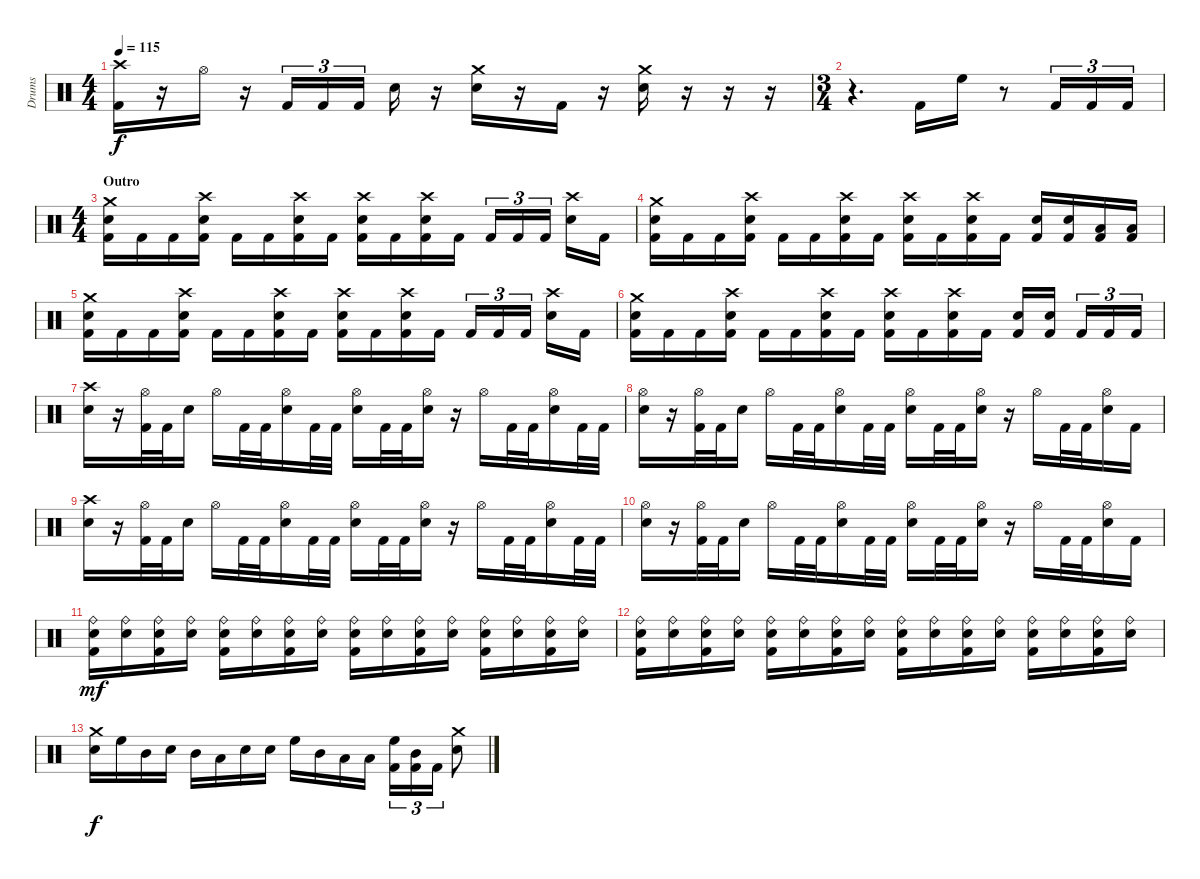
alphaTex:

\track ("Drums" "Drums") {instrument percussion}
\staff {score}
\articulation defaults
\ts (4 4)
\tempo 115
\clef neutral
\ks c
("Crash high (hit)" "Kick (hit) 2").16{dy f} r.16 "Hi-Hat (open)".16 r.16 "Kick (hit) 2".16{tu (3 2)} "Kick (hit) 2".16{tu (3 2)} "Kick (hit) 2".16{tu (3 2)} "Electric Snare (hit)".16 r.16 ("Crash medium (hit)" "Electric Snare (hit)").16 r.16 "Kick (hit) 2".16 r.16 ("Crash medium (hit)" "Electric Snare (hit)").16 r.16 r.16 r.16 |
\ts (3 4)
r.4{d} "Kick (hit) 2".16 "High Floor Tom (hit)".16 r.8 "Kick (hit) 2".16{tu (3 2)} "Kick (hit) 2".16{tu (3 2)} "Kick (hit) 2".16{tu (3 2)} |
\ts (4 4)
\section ("" "Outro")
("Crash medium (hit)" "Electric Snare (hit)" "Kick (hit) 2").16 "Kick (hit) 2".16 "Kick (hit) 2".16 ("Crash high (hit)" "Electric Snare (hit)" "Kick (hit) 2").16 "Kick (hit) 2".16 "Kick (hit) 2".16 ("Crash high (hit)" "Electric Snare (hit)" "Kick (hit) 2").16 "Kick (hit) 2".16 ("Crash high (hit)" "Electric Snare (hit)" "Kick (hit) 2").16 "Kick (hit) 2".16 ("Crash high (hit)" "Electric Snare (hit)" "Kick (hit) 2").16 "Kick (hit) 2".16 "Kick (hit) 2".16{tu (3 2)} "Kick (hit) 2".16{tu (3 2)} "Kick (hit) 2".16{tu (3 2)} ("Crash high (hit)" "Electric Snare (hit)").16 "Kick (hit) 2".16 |
("Crash medium (hit)" "Electric Snare (hit)" "Kick (hit) 2").16 "Kick (hit) 2".16 "Kick (hit) 2".16 ("Crash high (hit)" "Electric Snare (hit)" "Kick (hit) 2").16 "Kick (hit) 2".16 "Kick (hit) 2".16 ("Crash high (hit)" "Electric Snare (hit)" "Kick (hit) 2").16 "Kick (hit) 2".16 ("Crash high (hit)" "Electric Snare (hit)" "Kick (hit) 2").16 "Kick (hit) 2".16 ("Crash high (hit)" "Electric Snare (hit)" "Kick (hit) 2").16 "Kick (hit) 2".16 ("Electric Snare (hit)" "Kick (hit) 2").16 ("Electric Snare (hit)" "Kick (hit) 2").16 ("Low Tom (hit)" "Kick (hit) 2").16 ("Low Floor Tom (hit)" "Kick (hit) 2").16 |
("Crash medium (hit)" "Electric Snare (hit)" "Kick (hit) 2").16 "Kick (hit) 2".16 "Kick (hit) 2".16 ("Crash high (hit)" "Electric Snare (hit)" "Kick (hit) 2").16 "Kick (hit) 2".16 "Kick (hit) 2".16 ("Crash high (hit)" "Electric Snare (hit)" "Kick (hit) 2").16 "Kick (hit) 2".16 ("Crash high (hit)" "Electric Snare (hit)" "Kick (hit) 2").16 "Kick (hit) 2".16 ("Crash high (hit)" "Electric Snare (hit)" "Kick (hit) 2").16 "Kick (hit) 2".16 "Kick (hit) 2".16{tu (3 2)} "Kick (hit) 2".16{tu (3 2)} "Kick (hit) 2".16{tu (3 2)} ("Crash high (hit)" "Electric Snare (hit)").16 "Kick (hit) 2".16 |
("Crash medium (hit)" "Electric Snare (hit)" "Kick (hit) 2").16 "Kick (hit) 2".16 "Kick (hit) 2".16 ("Crash high (hit)" "Electric Snare (hit)" "Kick (hit) 2").16 "Kick (hit) 2".16 "Kick (hit) 2".16 ("Crash high (hit)" "Electric Snare (hit)" "Kick (hit) 2").16 "Kick (hit) 2".16 ("Crash high (hit)" "Electric Snare (hit)" "Kick (hit) 2").16 "Kick (hit) 2".16 ("Crash high (hit)" "Electric Snare (hit)" "Kick (hit) 2").16 "Kick (hit) 2".16 ("Electric Snare (hit)" "Kick (hit) 2").16 ("Electric Snare (hit)" "Kick (hit) 2").16 "Kick (hit) 2".16{tu (3 2)} "Kick (hit) 2".16{tu (3 2)} "Kick (hit) 2".16{tu (3 2)} |
("Crash high (hit)" "Electric Snare (hit)").16 r.16 ("Hi-Hat (open)" "Kick (hit) 2").32 "Kick (hit) 2".32 "Electric Snare (hit)".16 "Hi-Hat (open)".16 "Kick (hit) 2".32 "Kick (hit) 2".32 ("Hi-Hat (open)" "Electric Snare (hit)").16 "Kick (hit) 2".32 "Kick (hit) 2".32 ("Hi-Hat (open)" "Electric Snare (hit)").16 "Kick (hit) 2".32 "Kick (hit) 2".32 ("Hi-Hat (open)" "Electric Snare (hit)").16 r.16 "Hi-Hat (open)".16 "Kick (hit) 2".32 "Kick (hit) 2".32 ("Hi-Hat (open)" "Electric Snare (hit)").16 "Kick (hit) 2".32 "Kick (hit) 2".32 |
("Hi-Hat (open)" "Electric Snare (hit)").16 r.16 ("Hi-Hat (open)" "Kick (hit) 2").32 "Kick (hit) 2".32 "Electric Snare (hit)".16 "Hi-Hat (open)".16 "Kick (hit) 2".32 "Kick (hit) 2".32 ("Hi-Hat (open)" "Electric Snare (hit)").16 "Kick (hit) 2".32 "Kick (hit) 2".32 ("Hi-Hat (open)" "Electric Snare (hit)").16 "Kick (hit) 2".32 "Kick (hit) 2".32 ("Hi-Hat (open)" "Electric Snare (hit)").16 r.16 "Hi-Hat (open)".16 "Kick (hit) 2".32 "Kick (hit) 2".32 ("Hi-Hat (open)" "Electric Snare (hit)").16 "Kick (hit) 2".16 |
("Crash high (hit)" "Electric Snare (hit)").16 r.16 ("Hi-Hat (open)" "Kick (hit) 2").32 "Kick (hit) 2".32 "Electric Snare (hit)".16 "Hi-Hat (open)".16 "Kick (hit) 2".32 "Kick (hit) 2".32 ("Hi-Hat (open)" "Electric Snare (hit)").16 "Kick (hit) 2".32 "Kick (hit) 2".32 ("Hi-Hat (open)" "Electric Snare (hit)").16 "Kick (hit) 2".32 "Kick (hit) 2".32 ("Hi-Hat (open)" "Electric Snare (hit)").16 r.16 "Hi-Hat (open)".16 "Kick (hit) 2".32 "Kick (hit) 2".32 ("Hi-Hat (open)" "Electric Snare (hit)").16 "Kick (hit) 2".32 "Kick (hit) 2".32 |
("Hi-Hat (open)" "Electric Snare (hit)").16 r.16 ("Hi-Hat (open)" "Kick (hit) 2").32 "Kick (hit) 2".32 "Electric Snare (hit)".16 "Hi-Hat (open)".16 "Kick (hit) 2".32 "Kick (hit) 2".32 ("Hi-Hat (open)" "Electric Snare (hit)").16 "Kick (hit) 2".32 "Kick (hit) 2".32 ("Hi-Hat (open)" "Electric Snare (hit)").16 "Kick (hit) 2".32 "Kick (hit) 2".32 ("Hi-Hat (open)" "Electric Snare (hit)").16 r.16 "Hi-Hat (open)".16 "Kick (hit) 2".32 "Kick (hit) 2".32 ("Hi-Hat (open)" "Electric Snare (hit)").16 "Kick (hit) 2".16 |
("Ride (bell)" "Electric Snare (hit)" "Kick (hit) 2").16{dy mf} ("Ride (bell)" "Electric Snare (hit)").16 ("Ride (bell)" "Electric Snare (hit)" "Kick (hit) 2").16 ("Ride (bell)" "Electric Snare (hit)").16 ("Ride (bell)" "Electric Snare (hit)" "Kick (hit) 2").16 ("Ride (bell)" "Electric Snare (hit)").16 ("Ride (bell)" "Electric Snare (hit)" "Kick (hit) 2").16 ("Ride (bell)" "Electric Snare (hit)").16 ("Ride (bell)" "Electric Snare (hit)" "Kick (hit) 2").16 ("Ride (bell)" "Electric Snare (hit)").16 ("Ride (bell)" "Electric Snare (hit)" "Kick (hit) 2").16 ("Ride (bell)" "Electric Snare (hit)").16 ("Ride (bell)" "Electric Snare (hit)" "Kick (hit) 2").16 ("Ride (bell)" "Electric Snare (hit)").16 ("Ride (bell)" "Electric Snare (hit)" "Kick (hit) 2").16 ("Ride (bell)" "Electric Snare (hit)").16 |
("Ride (bell)" "Electric Snare (hit)" "Kick (hit) 2").16 ("Ride (bell)" "Electric Snare (hit)").16 ("Ride (bell)" "Electric Snare (hit)" "Kick (hit) 2").16 ("Ride (bell)" "Electric Snare (hit)").16 ("Ride (bell)" "Electric Snare (hit)" "Kick (hit) 2").16 ("Ride (bell)" "Electric Snare (hit)").16 ("Ride (bell)" "Electric Snare (hit)" "Kick (hit) 2").16 ("Ride (bell)" "Electric Snare (hit)").16 ("Ride (bell)" "Electric Snare (hit)" "Kick (hit) 2").16 ("Ride (bell)" "Electric Snare (hit)").16 ("Ride (bell)" "Electric Snare (hit)" "Kick (hit) 2").16 ("Ride (bell)" "Electric Snare (hit)").16 ("Ride (bell)" "Electric Snare (hit)" "Kick (hit) 2").16 ("Ride (bell)" "Electric Snare (hit)").16 ("Ride (bell)" "Electric Snare (hit)" "Kick (hit) 2").16 ("Ride (bell)" "Electric Snare (hit)").16 |
("Crash medium (hit)" "Electric Snare (hit)").16{dy f} "High Floor Tom (hit)".16 "Mid Tom (hit)".16 "Electric Snare (hit)".16 "Mid Tom (hit)".16 "Low Tom (hit)".16 "Electric Snare (hit)".16 "Electric Snare (hit)".16 "High Floor Tom (hit)".16 "Mid Tom (hit)".16 "Low Tom (hit)".16 "Low Floor Tom (hit)".16 ("High Floor Tom (hit)" "Kick (hit) 2").16{tu (3 2)} ("Mid Tom (hit)" "Kick (hit) 2").16{tu (3 2)} "Kick (hit) 2".16{tu (3 2)} ("Crash medium (hit)" "Electric Snare (hit)").8
